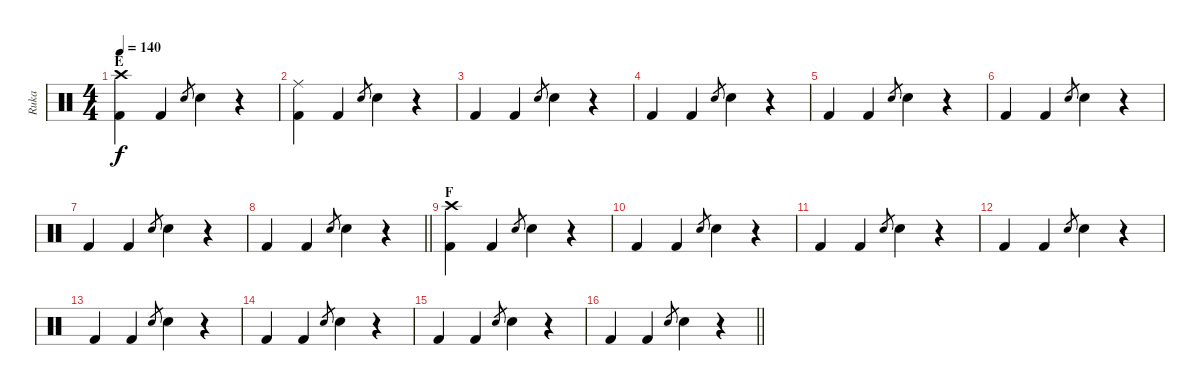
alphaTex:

\track ("Ruka" "Ruka") {instrument percussion}
\staff {score}
\articulation defaults
\ts (4 4)
\section ("" "E")
\tempo 140
\clef neutral
\ks c
("Crash high (hit)" "Kick (hit) 2").4{dy f} "Kick (hit) 2".4 "Snare (hit) 2".8{gr} "Snare (hit) 2".4 r.4 |
("Ride (middle)" "Kick (hit) 2").4 "Kick (hit) 2".4 "Snare (hit) 2".8{gr} "Snare (hit) 2".4 r.4 |
"Kick (hit) 2".4 "Kick (hit) 2".4 "Snare (hit) 2".8{gr} "Snare (hit) 2".4 r.4 |
"Kick (hit) 2".4 "Kick (hit) 2".4 "Snare (hit) 2".8{gr} "Snare (hit) 2".4 r.4 |
"Kick (hit) 2".4 "Kick (hit) 2".4 "Snare (hit) 2".8{gr} "Snare (hit) 2".4 r.4 |
"Kick (hit) 2".4 "Kick (hit) 2".4 "Snare (hit) 2".8{gr} "Snare (hit) 2".4 r.4 |
"Kick (hit) 2".4 "Kick (hit) 2".4 "Snare (hit) 2".8{gr} "Snare (hit) 2".4 r.4 |
\barLineRight lightlight "Kick (hit) 2".4 "Kick (hit) 2".4 "Snare (hit) 2".8{gr} "Snare (hit) 2".4
r.4 |
\section ("" "F")
("Crash high (hit)" "Kick (hit) 2").4 "Kick (hit) 2".4 "Snare (hit) 2".8{gr} "Snare (hit) 2".4 r.4 |
"Kick (hit) 2".4 "Kick (hit) 2".4 "Snare (hit) 2".8{gr} "Snare (hit) 2".4 r.4 |
"Kick (hit) 2".4 "Kick (hit) 2".4 "Snare (hit) 2".8{gr} "Snare (hit) 2".4 r.4 |
"Kick (hit) 2".4 "Kick (hit) 2".4 "Snare (hit) 2".8{gr} "Snare (hit) 2".4 r.4 |
"Kick (hit) 2".4 "Kick (hit) 2".4 "Snare (hit) 2".8{gr} "Snare (hit) 2".4 r.4 |
"Kick (hit) 2".4 "Kick (hit) 2".4 "Snare (hit) 2".8{gr} "Snare (hit) 2".4 r.4 |
"Kick (hit) 2".4 "Kick (hit) 2".4 "Snare (hit) 2".8{gr} "Snare (hit) 2".4 r.4 |
\barLineRight lightlight "Kick (hit) 2".4 "Kick (hit) 2".4 "Snare (hit) 2".8{gr} "Snare (hit) 2".4
r.4
